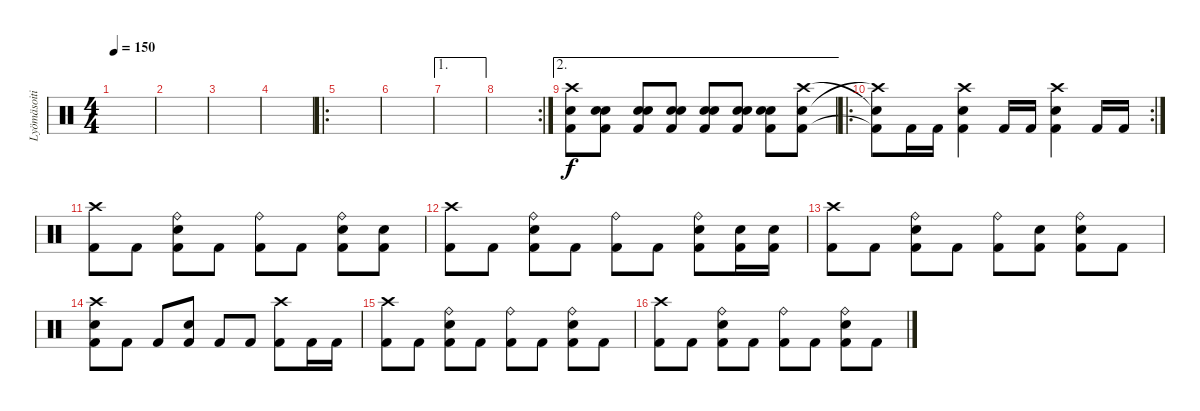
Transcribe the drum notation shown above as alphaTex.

\track ("Lyömäsoitin" "Lyömäsoiti") {instrument percussion}
\staff {score}
\articulation defaults
\ts (4 4)
\tempo 150
\clef neutral
\ks c
|
|
|
|
\ro
|
|
\ae 1
|
\rc 2
|
\ae 2
("Kick (hit) 2" "Electric Snare (hit)" "Crash high (hit)").8 ("Kick (hit) 2" "Electric Snare (hit)" "Electric Snare (hit)").8 ("Kick (hit) 2" "Electric Snare (hit)" "Electric Snare (hit)").8 ("Kick (hit) 2" "Electric Snare (hit)" "Electric Snare (hit)").8 ("Kick (hit) 2" "Electric Snare (hit)" "Electric Snare (hit)").8 ("Kick (hit) 2" "Electric Snare (hit)" "Electric Snare (hit)").8 ("Kick (hit) 2" "Electric Snare (hit)" "Electric Snare (hit)").8 ("Kick (hit) 2" "Electric Snare (hit)" "Crash high (hit)").8 |
\ro
\rc 2
("Kick (hit) 2"{t} "Crash high (hit)"{t} "Electric Snare (hit)"{t}).8 "Kick (hit) 2".16 "Kick (hit) 2".16 ("Kick (hit) 2" "Electric Snare (hit)" "Crash high (hit)").4 "Kick (hit) 2".16 "Kick (hit) 2".16 ("Kick (hit) 2" "Electric Snare (hit)" "Crash high (hit)").4 "Kick (hit) 2".16 "Kick (hit) 2".16 |
("Kick (hit) 2" "Crash high (hit)").8 "Kick (hit) 2".8 ("Kick (hit) 2" "Ride (bell)" "Electric Snare (hit)").8 "Kick (hit) 2".8 ("Kick (hit) 2" "Ride (bell)").8 "Kick (hit) 2".8 ("Kick (hit) 2" "Ride (bell)" "Electric Snare (hit)").8 ("Kick (hit) 2" "Electric Snare (hit)").8 |
("Kick (hit) 2" "Crash high (hit)").8 "Kick (hit) 2".8 ("Kick (hit) 2" "Ride (bell)" "Electric Snare (hit)").8 "Kick (hit) 2".8 ("Kick (hit) 2" "Ride (bell)").8 "Kick (hit) 2".8 ("Kick (hit) 2" "Ride (bell)" "Electric Snare (hit)").8 ("Kick (hit) 2" "Electric Snare (hit)").16 ("Kick (hit) 2" "Electric Snare (hit)").16 |
("Kick (hit) 2" "Crash high (hit)").8 "Kick (hit) 2".8 ("Kick (hit) 2" "Ride (bell)" "Electric Snare (hit)").8 "Kick (hit) 2".8 ("Kick (hit) 2" "Ride (bell)").8 ("Kick (hit) 2" "Snare (hit)").8 ("Kick (hit) 2" "Ride (bell)" "Electric Snare (hit)").8 "Kick (hit) 2".8 |
("Kick (hit) 2" "Crash high (hit)" "Electric Snare (hit)").8 "Kick (hit) 2".8 "Kick (hit) 2".8 ("Kick (hit) 2" "Electric Snare (hit)").8 "Kick (hit) 2".8 "Kick (hit) 2".8 ("Kick (hit) 2" "Crash high (hit)").8 "Kick (hit) 2".16 "Kick (hit) 2".16 |
("Kick (hit) 2" "Crash high (hit)").8 "Kick (hit) 2".8 ("Kick (hit) 2" "Ride (bell)" "Electric Snare (hit)").8 "Kick (hit) 2".8 ("Kick (hit) 2" "Ride (bell)").8 "Kick (hit) 2".8 ("Kick (hit) 2" "Ride (bell)" "Electric Snare (hit)").8 "Kick (hit) 2".8 |
("Kick (hit) 2" "Crash high (hit)").8 "Kick (hit) 2".8 ("Kick (hit) 2" "Ride (bell)" "Electric Snare (hit)").8 "Kick (hit) 2".8 ("Kick (hit) 2" "Ride (bell)").8 "Kick (hit) 2".8 ("Kick (hit) 2" "Ride (bell)" "Electric Snare (hit)").8 "Kick (hit) 2".8
